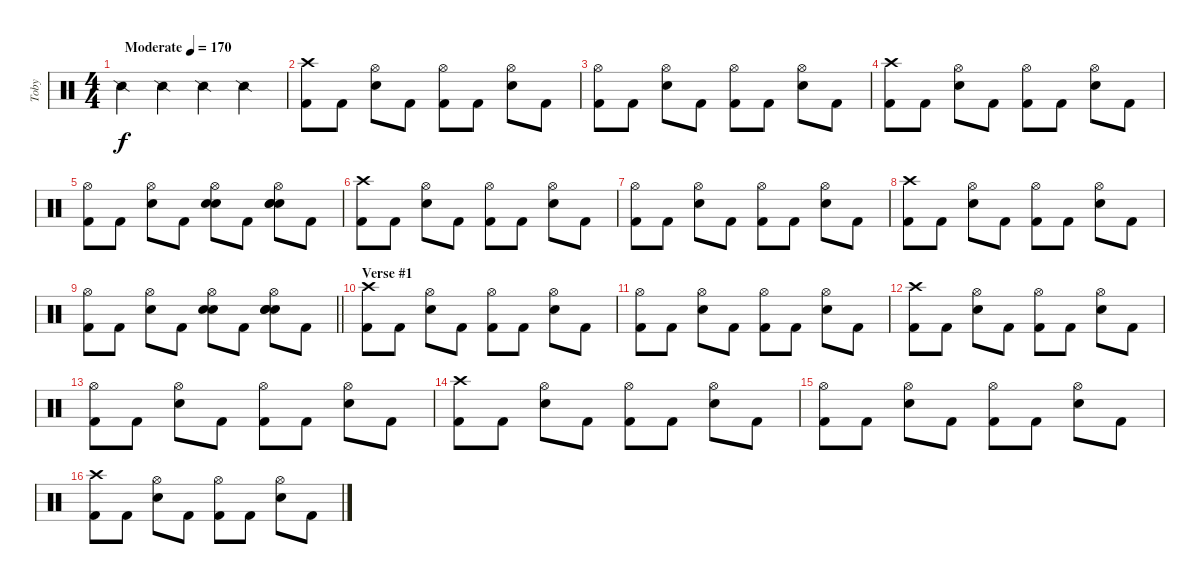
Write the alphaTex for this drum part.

\track ("Toby" "Toby") {instrument percussion}
\staff {score}
\articulation defaults
\ts (4 4)
\tempo (170 "Moderate")
\clef neutral
\ks c "Snare (side stick) 2".4{dy f} "Snare (side stick) 2".4 "Snare (side stick) 2".4 "Snare (side stick) 2".4
|
("Crash high (hit)" "Kick (hit) 2").8 "Kick (hit) 2".8 ("Hi-Hat (open)" "Electric Snare (hit)").8 "Kick (hit) 2".8 ("Hi-Hat (open)" "Kick (hit) 2").8 "Kick (hit) 2".8 ("Hi-Hat (open)" "Electric Snare (hit)").8 "Kick (hit) 2".8 |
("Hi-Hat (open)" "Kick (hit) 2").8 "Kick (hit) 2".8 ("Hi-Hat (open)" "Electric Snare (hit)").8 "Kick (hit) 2".8 ("Hi-Hat (open)" "Kick (hit) 2").8 "Kick (hit) 2".8 ("Hi-Hat (open)" "Electric Snare (hit)").8 "Kick (hit) 2".8 |
("Crash high (hit)" "Kick (hit) 2").8 "Kick (hit) 2".8 ("Hi-Hat (open)" "Electric Snare (hit)").8 "Kick (hit) 2".8 ("Hi-Hat (open)" "Kick (hit) 2").8 "Kick (hit) 2".8 ("Hi-Hat (open)" "Electric Snare (hit)").8 "Kick (hit) 2".8 |
("Hi-Hat (open)" "Kick (hit) 2").8 "Kick (hit) 2".8 ("Hi-Hat (open)" "Electric Snare (hit)").8 "Kick (hit) 2".8 ("Hi-Hat (open)" "Electric Snare (hit)" "Electric Snare (hit)").8 "Kick (hit) 2".8 ("Hi-Hat (open)" "Electric Snare (hit)" "Electric Snare (hit)" "Electric Snare (hit)").8 "Kick (hit) 2".8 |
("Crash high (hit)" "Kick (hit) 2").8 "Kick (hit) 2".8 ("Hi-Hat (open)" "Electric Snare (hit)").8 "Kick (hit) 2".8 ("Hi-Hat (open)" "Kick (hit) 2").8 "Kick (hit) 2".8 ("Hi-Hat (open)" "Electric Snare (hit)").8 "Kick (hit) 2".8 |
("Hi-Hat (open)" "Kick (hit) 2").8 "Kick (hit) 2".8 ("Hi-Hat (open)" "Electric Snare (hit)").8 "Kick (hit) 2".8 ("Hi-Hat (open)" "Kick (hit) 2").8 "Kick (hit) 2".8 ("Hi-Hat (open)" "Electric Snare (hit)").8 "Kick (hit) 2".8 |
("Crash high (hit)" "Kick (hit) 2").8 "Kick (hit) 2".8 ("Hi-Hat (open)" "Electric Snare (hit)").8 "Kick (hit) 2".8 ("Hi-Hat (open)" "Kick (hit) 2").8 "Kick (hit) 2".8 ("Hi-Hat (open)" "Electric Snare (hit)").8 "Kick (hit) 2".8 |
\barLineRight lightlight
("Hi-Hat (open)" "Kick (hit) 2").8 "Kick (hit) 2".8 ("Hi-Hat (open)" "Electric Snare (hit)").8 "Kick (hit) 2".8 ("Hi-Hat (open)" "Electric Snare (hit)" "Electric Snare (hit)").8 "Kick (hit) 2".8 ("Hi-Hat (open)" "Electric Snare (hit)" "Electric Snare (hit)" "Electric Snare (hit)").8 "Kick (hit) 2".8 |
\section ("" "Verse #1")
("Crash high (hit)" "Kick (hit) 2").8 "Kick (hit) 2".8 ("Hi-Hat (open)" "Electric Snare (hit)").8 "Kick (hit) 2".8 ("Hi-Hat (open)" "Kick (hit) 2").8 "Kick (hit) 2".8 ("Hi-Hat (open)" "Electric Snare (hit)").8 "Kick (hit) 2".8 |
("Hi-Hat (open)" "Kick (hit) 2").8 "Kick (hit) 2".8 ("Hi-Hat (open)" "Electric Snare (hit)").8 "Kick (hit) 2".8 ("Hi-Hat (open)" "Kick (hit) 2").8 "Kick (hit) 2".8 ("Hi-Hat (open)" "Electric Snare (hit)").8 "Kick (hit) 2".8 |
("Crash high (hit)" "Kick (hit) 2").8 "Kick (hit) 2".8 ("Hi-Hat (open)" "Electric Snare (hit)").8 "Kick (hit) 2".8 ("Hi-Hat (open)" "Kick (hit) 2").8 "Kick (hit) 2".8 ("Hi-Hat (open)" "Electric Snare (hit)").8 "Kick (hit) 2".8 |
("Hi-Hat (open)" "Kick (hit) 2").8 "Kick (hit) 2".8 ("Hi-Hat (open)" "Electric Snare (hit)").8 "Kick (hit) 2".8 ("Hi-Hat (open)" "Kick (hit) 2").8 "Kick (hit) 2".8 ("Hi-Hat (open)" "Electric Snare (hit)").8 "Kick (hit) 2".8 |
("Crash high (hit)" "Kick (hit) 2").8 "Kick (hit) 2".8 ("Hi-Hat (open)" "Electric Snare (hit)").8 "Kick (hit) 2".8 ("Hi-Hat (open)" "Kick (hit) 2").8 "Kick (hit) 2".8 ("Hi-Hat (open)" "Electric Snare (hit)").8 "Kick (hit) 2".8 |
("Hi-Hat (open)" "Kick (hit) 2").8 "Kick (hit) 2".8 ("Hi-Hat (open)" "Electric Snare (hit)").8 "Kick (hit) 2".8 ("Hi-Hat (open)" "Kick (hit) 2").8 "Kick (hit) 2".8 ("Hi-Hat (open)" "Electric Snare (hit)").8 "Kick (hit) 2".8 |
("Crash high (hit)" "Kick (hit) 2").8 "Kick (hit) 2".8 ("Hi-Hat (open)" "Electric Snare (hit)").8 "Kick (hit) 2".8 ("Hi-Hat (open)" "Kick (hit) 2").8 "Kick (hit) 2".8 ("Hi-Hat (open)" "Electric Snare (hit)").8 "Kick (hit) 2".8
